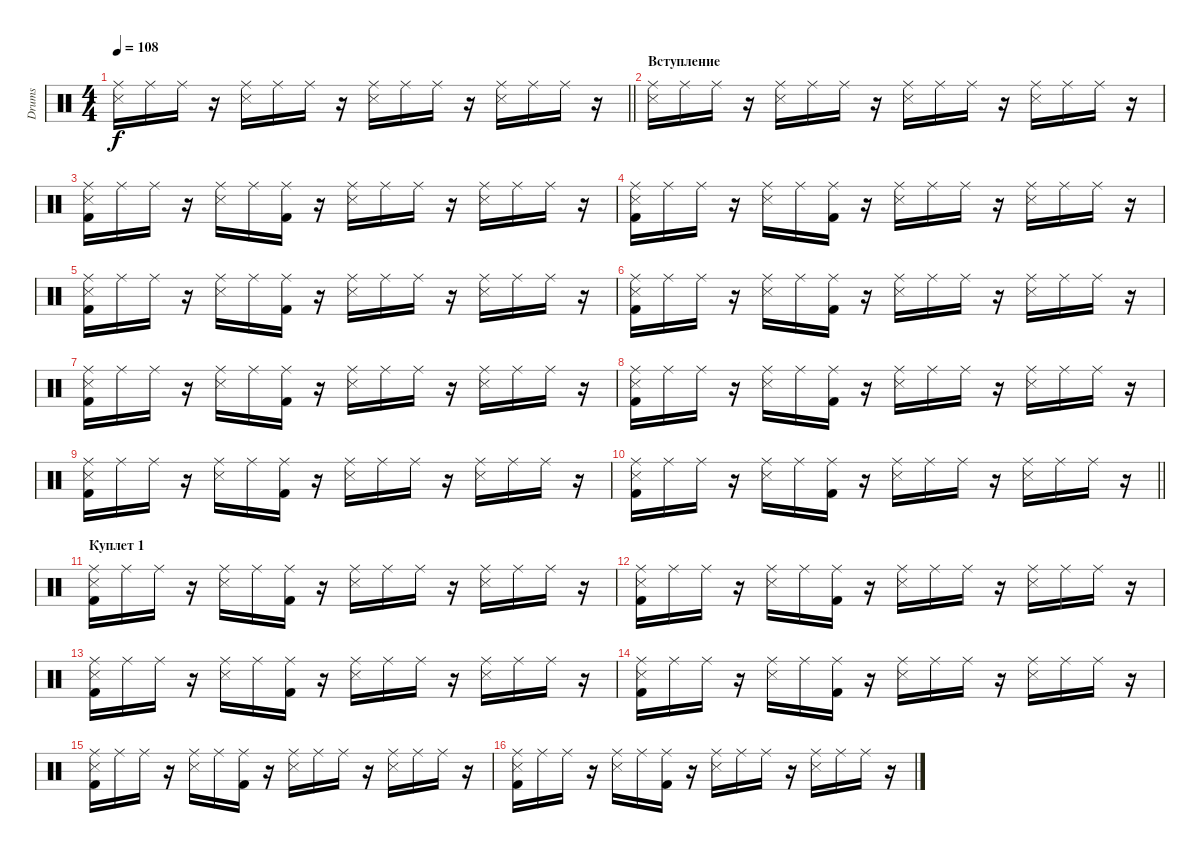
\track ("Drums" "Drums") {instrument percussion}
\staff {score}
\articulation defaults
\ts (4 4)
\tempo 108
\clef neutral
\barLineRight lightlight
\ks c
("Ride (middle)" "Snare (side stick) 3").16{dy f} "Ride (middle)".16 "Ride (middle)".16 r.16 ("Ride (middle)" "Snare (side stick) 3").16 "Ride (middle)".16 "Ride (middle)".16 r.16 ("Ride (middle)" "Snare (side stick) 3").16 "Ride (middle)".16 "Ride (middle)".16 r.16 ("Ride (middle)" "Snare (side stick) 3").16 "Ride (middle)".16 "Ride (middle)".16 r.16 |
\section ("" "Вступление")
("Ride (middle)" "Snare (side stick) 3").16 "Ride (middle)".16 "Ride (middle)".16 r.16 ("Ride (middle)" "Snare (side stick) 3").16 "Ride (middle)".16 "Ride (middle)".16 r.16 ("Ride (middle)" "Snare (side stick) 3").16 "Ride (middle)".16 "Ride (middle)".16 r.16 ("Ride (middle)" "Snare (side stick) 3").16 "Ride (middle)".16 "Ride (middle)".16 r.16 |
("Ride (middle)" "Kick (hit) 2" "Snare (side stick) 3").16 "Ride (middle)".16 "Ride (middle)".16 r.16 ("Ride (middle)" "Snare (side stick) 3").16 "Ride (middle)".16 ("Ride (middle)" "Kick (hit) 2").16 r.16 ("Ride (middle)" "Snare (side stick) 3").16 "Ride (middle)".16 "Ride (middle)".16 r.16 ("Ride (middle)" "Snare (side stick) 3").16 "Ride (middle)".16 "Ride (middle)".16 r.16 |
("Ride (middle)" "Kick (hit) 2" "Snare (side stick) 3").16 "Ride (middle)".16 "Ride (middle)".16 r.16 ("Ride (middle)" "Snare (side stick) 3").16 "Ride (middle)".16 ("Ride (middle)" "Kick (hit) 2").16 r.16 ("Ride (middle)" "Snare (side stick) 3").16 "Ride (middle)".16 "Ride (middle)".16 r.16 ("Ride (middle)" "Snare (side stick) 3").16 "Ride (middle)".16 "Ride (middle)".16 r.16 |
("Ride (middle)" "Kick (hit) 2" "Snare (side stick) 3").16 "Ride (middle)".16 "Ride (middle)".16 r.16 ("Ride (middle)" "Snare (side stick) 3").16 "Ride (middle)".16 ("Ride (middle)" "Kick (hit) 2").16 r.16 ("Ride (middle)" "Snare (side stick) 3").16 "Ride (middle)".16 "Ride (middle)".16 r.16 ("Ride (middle)" "Snare (side stick) 3").16 "Ride (middle)".16 "Ride (middle)".16 r.16 |
("Ride (middle)" "Kick (hit) 2" "Snare (side stick) 3").16 "Ride (middle)".16 "Ride (middle)".16 r.16 ("Ride (middle)" "Snare (side stick) 3").16 "Ride (middle)".16 ("Ride (middle)" "Kick (hit) 2").16 r.16 ("Ride (middle)" "Snare (side stick) 3").16 "Ride (middle)".16 "Ride (middle)".16 r.16 ("Ride (middle)" "Snare (side stick) 3").16 "Ride (middle)".16 "Ride (middle)".16 r.16 |
("Ride (middle)" "Kick (hit) 2" "Snare (side stick) 3").16 "Ride (middle)".16 "Ride (middle)".16 r.16 ("Ride (middle)" "Snare (side stick) 3").16 "Ride (middle)".16 ("Ride (middle)" "Kick (hit) 2").16 r.16 ("Ride (middle)" "Snare (side stick) 3").16 "Ride (middle)".16 "Ride (middle)".16 r.16 ("Ride (middle)" "Snare (side stick) 3").16 "Ride (middle)".16 "Ride (middle)".16 r.16 |
("Ride (middle)" "Kick (hit) 2" "Snare (side stick) 3").16 "Ride (middle)".16 "Ride (middle)".16 r.16 ("Ride (middle)" "Snare (side stick) 3").16 "Ride (middle)".16 ("Ride (middle)" "Kick (hit) 2").16 r.16 ("Ride (middle)" "Snare (side stick) 3").16 "Ride (middle)".16 "Ride (middle)".16 r.16 ("Ride (middle)" "Snare (side stick) 3").16 "Ride (middle)".16 "Ride (middle)".16 r.16 |
("Ride (middle)" "Kick (hit) 2" "Snare (side stick) 3").16 "Ride (middle)".16 "Ride (middle)".16 r.16 ("Ride (middle)" "Snare (side stick) 3").16 "Ride (middle)".16 ("Ride (middle)" "Kick (hit) 2").16 r.16 ("Ride (middle)" "Snare (side stick) 3").16 "Ride (middle)".16 "Ride (middle)".16 r.16 ("Ride (middle)" "Snare (side stick) 3").16 "Ride (middle)".16 "Ride (middle)".16 r.16 |
\barLineRight lightlight
("Ride (middle)" "Kick (hit) 2" "Snare (side stick) 3").16 "Ride (middle)".16 "Ride (middle)".16 r.16 ("Ride (middle)" "Snare (side stick) 3").16 "Ride (middle)".16 ("Ride (middle)" "Kick (hit) 2").16 r.16 ("Ride (middle)" "Snare (side stick) 3").16 "Ride (middle)".16 "Ride (middle)".16 r.16 ("Ride (middle)" "Snare (side stick) 3").16 "Ride (middle)".16 "Ride (middle)".16 r.16 |
\section ("" "Куплет 1")
("Ride (middle)" "Kick (hit) 2" "Snare (side stick) 3").16 "Ride (middle)".16 "Ride (middle)".16 r.16 ("Ride (middle)" "Snare (side stick) 3").16 "Ride (middle)".16 ("Ride (middle)" "Kick (hit) 2").16 r.16 ("Ride (middle)" "Snare (side stick) 3").16 "Ride (middle)".16 "Ride (middle)".16 r.16 ("Ride (middle)" "Snare (side stick) 3").16 "Ride (middle)".16 "Ride (middle)".16 r.16 |
("Ride (middle)" "Kick (hit) 2" "Snare (side stick) 3").16 "Ride (middle)".16 "Ride (middle)".16 r.16 ("Ride (middle)" "Snare (side stick) 3").16 "Ride (middle)".16 ("Ride (middle)" "Kick (hit) 2").16 r.16 ("Ride (middle)" "Snare (side stick) 3").16 "Ride (middle)".16 "Ride (middle)".16 r.16 ("Ride (middle)" "Snare (side stick) 3").16 "Ride (middle)".16 "Ride (middle)".16 r.16 |
("Ride (middle)" "Kick (hit) 2" "Snare (side stick) 3").16 "Ride (middle)".16 "Ride (middle)".16 r.16 ("Ride (middle)" "Snare (side stick) 3").16 "Ride (middle)".16 ("Ride (middle)" "Kick (hit) 2").16 r.16 ("Ride (middle)" "Snare (side stick) 3").16 "Ride (middle)".16 "Ride (middle)".16 r.16 ("Ride (middle)" "Snare (side stick) 3").16 "Ride (middle)".16 "Ride (middle)".16 r.16 |
("Ride (middle)" "Kick (hit) 2" "Snare (side stick) 3").16 "Ride (middle)".16 "Ride (middle)".16 r.16 ("Ride (middle)" "Snare (side stick) 3").16 "Ride (middle)".16 ("Ride (middle)" "Kick (hit) 2").16 r.16 ("Ride (middle)" "Snare (side stick) 3").16 "Ride (middle)".16 "Ride (middle)".16 r.16 ("Ride (middle)" "Snare (side stick) 3").16 "Ride (middle)".16 "Ride (middle)".16 r.16 |
("Ride (middle)" "Kick (hit) 2" "Snare (side stick) 3").16 "Ride (middle)".16 "Ride (middle)".16 r.16 ("Ride (middle)" "Snare (side stick) 3").16 "Ride (middle)".16 ("Ride (middle)" "Kick (hit) 2").16 r.16 ("Ride (middle)" "Snare (side stick) 3").16 "Ride (middle)".16 "Ride (middle)".16 r.16 ("Ride (middle)" "Snare (side stick) 3").16 "Ride (middle)".16 "Ride (middle)".16 r.16 |
("Ride (middle)" "Kick (hit) 2" "Snare (side stick) 3").16 "Ride (middle)".16 "Ride (middle)".16 r.16 ("Ride (middle)" "Snare (side stick) 3").16 "Ride (middle)".16 ("Ride (middle)" "Kick (hit) 2").16 r.16 ("Ride (middle)" "Snare (side stick) 3").16 "Ride (middle)".16 "Ride (middle)".16 r.16 ("Ride (middle)" "Snare (side stick) 3").16 "Ride (middle)".16 "Ride (middle)".16 r.16
